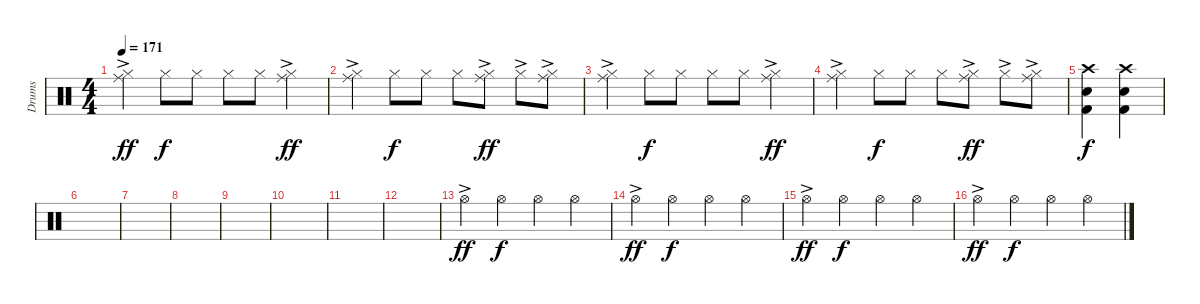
\track ("Drums" "Drums") {instrument percussion}
\staff {score}
\articulation defaults
\ts (4 4)
\tempo 171
\clef neutral
\ks c
("Hi-Hat (closed)"{ac} "Ride (middle)").4{dy ff} "Hi-Hat (closed)".8{dy f} "Hi-Hat (closed)".8 "Hi-Hat (closed)".8 "Hi-Hat (closed)".8 ("Hi-Hat (closed)"{ac} "Ride (middle)").4{dy ff} |
("Hi-Hat (closed)"{ac} "Ride (middle)").4 "Hi-Hat (closed)".8{dy f} "Hi-Hat (closed)".8 "Hi-Hat (closed)".8 ("Hi-Hat (closed)"{ac} "Ride (middle)").8{dy ff} "Hi-Hat (closed)"{ac}.8 ("Hi-Hat (closed)"{ac} "Ride (middle)").8 |
("Hi-Hat (closed)"{ac} "Ride (middle)").4 "Hi-Hat (closed)".8{dy f} "Hi-Hat (closed)".8 "Hi-Hat (closed)".8 "Hi-Hat (closed)".8 ("Hi-Hat (closed)"{ac} "Ride (middle)").4{dy ff} |
("Hi-Hat (closed)"{ac} "Ride (middle)").4 "Hi-Hat (closed)".8{dy f} "Hi-Hat (closed)".8 "Hi-Hat (closed)".8 ("Hi-Hat (closed)"{ac} "Ride (middle)").8{dy ff} "Hi-Hat (closed)"{ac}.8 ("Hi-Hat (closed)"{ac} "Ride (middle)").8 |
("Crash high (hit)" "Snare (hit) 2" "Kick (hit) 2").4{dy f} ("Crash high (hit)" "Snare (hit) 2" "Kick (hit) 2").4 |
|
|
|
|
|
|
|
"Hi-Hat (open)"{ac}.4{dy ff} "Hi-Hat (open)".4{dy f} "Hi-Hat (open)".4 "Hi-Hat (open)".4 |
"Hi-Hat (open)"{ac}.4{dy ff} "Hi-Hat (open)".4{dy f} "Hi-Hat (open)".4 "Hi-Hat (open)".4 |
"Hi-Hat (open)"{ac}.4{dy ff} "Hi-Hat (open)".4{dy f} "Hi-Hat (open)".4 "Hi-Hat (open)".4 |
"Hi-Hat (open)"{ac}.4{dy ff} "Hi-Hat (open)".4{dy f} "Hi-Hat (open)".4 "Hi-Hat (open)".4
